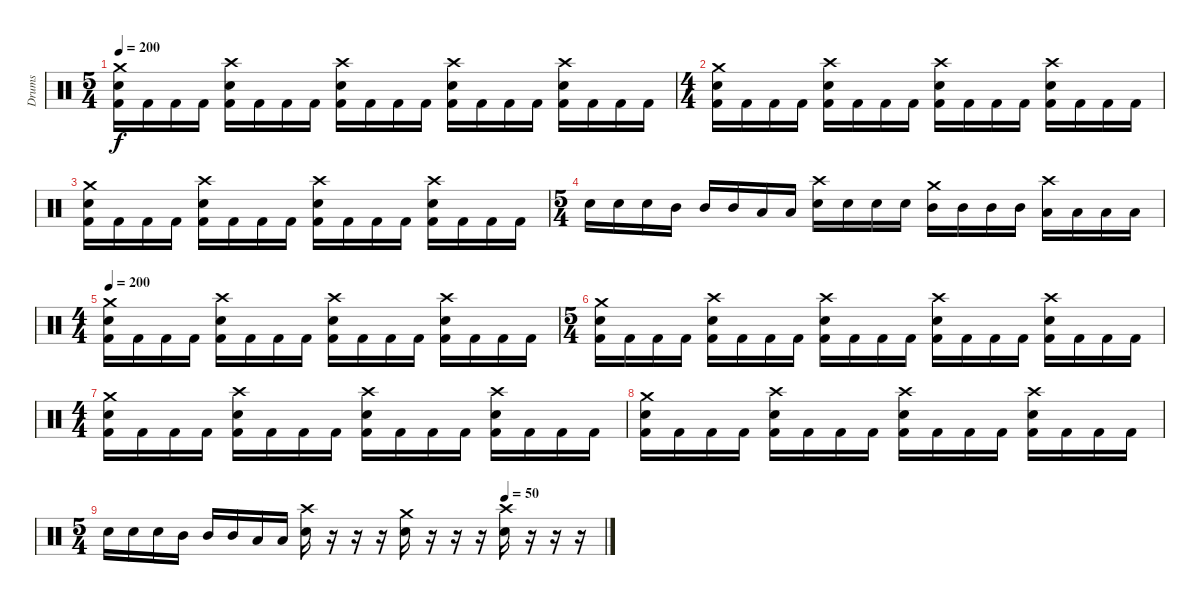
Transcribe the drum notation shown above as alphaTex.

\track ("Drums" "Drums") {instrument percussion}
\staff {score}
\articulation defaults
\ts (5 4)
\tempo 200
\clef neutral
\ks c
("Crash medium (hit)" "Electric Snare (hit)" "Kick (hit) 2").16{dy f} "Kick (hit) 2".16 "Kick (hit) 2".16 "Kick (hit) 2".16 ("Crash high (hit)" "Electric Snare (hit)" "Kick (hit) 2").16 "Kick (hit) 2".16 "Kick (hit) 2".16 "Kick (hit) 2".16 ("Crash high (hit)" "Electric Snare (hit)" "Kick (hit) 2").16 "Kick (hit) 2".16 "Kick (hit) 2".16 "Kick (hit) 2".16 ("Crash high (hit)" "Electric Snare (hit)" "Kick (hit) 2").16 "Kick (hit) 2".16 "Kick (hit) 2".16 "Kick (hit) 2".16 ("Crash high (hit)" "Electric Snare (hit)" "Kick (hit) 2").16 "Kick (hit) 2".16 "Kick (hit) 2".16 "Kick (hit) 2".16 |
\ts (4 4)
("Crash medium (hit)" "Electric Snare (hit)" "Kick (hit) 2").16 "Kick (hit) 2".16 "Kick (hit) 2".16 "Kick (hit) 2".16 ("Crash high (hit)" "Electric Snare (hit)" "Kick (hit) 2").16 "Kick (hit) 2".16 "Kick (hit) 2".16 "Kick (hit) 2".16 ("Crash high (hit)" "Electric Snare (hit)" "Kick (hit) 2").16 "Kick (hit) 2".16 "Kick (hit) 2".16 "Kick (hit) 2".16 ("Crash high (hit)" "Electric Snare (hit)" "Kick (hit) 2").16 "Kick (hit) 2".16 "Kick (hit) 2".16 "Kick (hit) 2".16 |
("Crash medium (hit)" "Electric Snare (hit)" "Kick (hit) 2").16 "Kick (hit) 2".16 "Kick (hit) 2".16 "Kick (hit) 2".16 ("Crash high (hit)" "Electric Snare (hit)" "Kick (hit) 2").16 "Kick (hit) 2".16 "Kick (hit) 2".16 "Kick (hit) 2".16 ("Crash high (hit)" "Electric Snare (hit)" "Kick (hit) 2").16 "Kick (hit) 2".16 "Kick (hit) 2".16 "Kick (hit) 2".16 ("Crash high (hit)" "Electric Snare (hit)" "Kick (hit) 2").16 "Kick (hit) 2".16 "Kick (hit) 2".16 "Kick (hit) 2".16 |
\ts (5 4)
"Electric Snare (hit)".16 "Electric Snare (hit)".16 "Electric Snare (hit)".16 "Mid Tom (hit)".16 "Mid Tom (hit)".16 "Mid Tom (hit)".16 "Low Tom (hit)".16 "Low Tom (hit)".16 ("Crash high (hit)" "Electric Snare (hit)").16 "Electric Snare (hit)".16 "Electric Snare (hit)".16 "Electric Snare (hit)".16 ("Crash medium (hit)" "Mid Tom (hit)").16 "Mid Tom (hit)".16 "Mid Tom (hit)".16 "Mid Tom (hit)".16 ("Crash high (hit)" "Low Tom (hit)").16 "Low Tom (hit)".16 "Low Tom (hit)".16 "Low Tom (hit)".16 |
\ts (4 4)
\tempo 200
("Crash medium (hit)" "Electric Snare (hit)" "Kick (hit) 2").16 "Kick (hit) 2".16 "Kick (hit) 2".16 "Kick (hit) 2".16 ("Crash high (hit)" "Electric Snare (hit)" "Kick (hit) 2").16 "Kick (hit) 2".16 "Kick (hit) 2".16 "Kick (hit) 2".16 ("Crash high (hit)" "Electric Snare (hit)" "Kick (hit) 2").16 "Kick (hit) 2".16 "Kick (hit) 2".16 "Kick (hit) 2".16 ("Crash high (hit)" "Electric Snare (hit)" "Kick (hit) 2").16 "Kick (hit) 2".16 "Kick (hit) 2".16 "Kick (hit) 2".16 |
\ts (5 4)
("Crash medium (hit)" "Electric Snare (hit)" "Kick (hit) 2").16 "Kick (hit) 2".16 "Kick (hit) 2".16 "Kick (hit) 2".16 ("Crash high (hit)" "Electric Snare (hit)" "Kick (hit) 2").16 "Kick (hit) 2".16 "Kick (hit) 2".16 "Kick (hit) 2".16 ("Crash high (hit)" "Electric Snare (hit)" "Kick (hit) 2").16 "Kick (hit) 2".16 "Kick (hit) 2".16 "Kick (hit) 2".16 ("Crash high (hit)" "Electric Snare (hit)" "Kick (hit) 2").16 "Kick (hit) 2".16 "Kick (hit) 2".16 "Kick (hit) 2".16 ("Crash high (hit)" "Electric Snare (hit)" "Kick (hit) 2").16 "Kick (hit) 2".16 "Kick (hit) 2".16 "Kick (hit) 2".16 |
\ts (4 4)
("Crash medium (hit)" "Electric Snare (hit)" "Kick (hit) 2").16 "Kick (hit) 2".16 "Kick (hit) 2".16 "Kick (hit) 2".16 ("Crash high (hit)" "Electric Snare (hit)" "Kick (hit) 2").16 "Kick (hit) 2".16 "Kick (hit) 2".16 "Kick (hit) 2".16 ("Crash high (hit)" "Electric Snare (hit)" "Kick (hit) 2").16 "Kick (hit) 2".16 "Kick (hit) 2".16 "Kick (hit) 2".16 ("Crash high (hit)" "Electric Snare (hit)" "Kick (hit) 2").16 "Kick (hit) 2".16 "Kick (hit) 2".16 "Kick (hit) 2".16 |
("Crash medium (hit)" "Electric Snare (hit)" "Kick (hit) 2").16 "Kick (hit) 2".16 "Kick (hit) 2".16 "Kick (hit) 2".16 ("Crash high (hit)" "Electric Snare (hit)" "Kick (hit) 2").16 "Kick (hit) 2".16 "Kick (hit) 2".16 "Kick (hit) 2".16 ("Crash high (hit)" "Electric Snare (hit)" "Kick (hit) 2").16 "Kick (hit) 2".16 "Kick (hit) 2".16 "Kick (hit) 2".16 ("Crash high (hit)" "Electric Snare (hit)" "Kick (hit) 2").16 "Kick (hit) 2".16 "Kick (hit) 2".16 "Kick (hit) 2".16 |
\ts (5 4)
\tempo (50 0.8)
"Electric Snare (hit)".16 "Electric Snare (hit)".16 "Electric Snare (hit)".16 "Mid Tom (hit)".16 "Mid Tom (hit)".16 "Mid Tom (hit)".16 "Low Tom (hit)".16 "Low Tom (hit)".16 ("Crash high (hit)" "Electric Snare (hit)").16 r.16 r.16 r.16 ("Crash medium (hit)" "Electric Snare (hit)").16 r.16 r.16 r.16 ("Crash high (hit)" "Electric Snare (hit)").16 r.16 r.16 r.16
